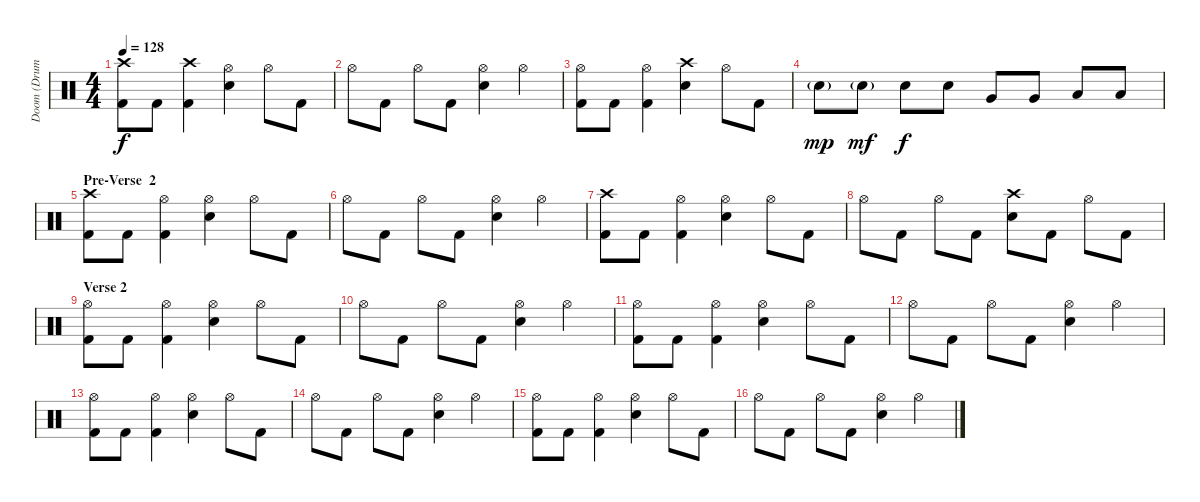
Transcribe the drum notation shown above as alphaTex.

\track ("Doom (Drums)" "Doom (Drum") {instrument percussion}
\staff {score}
\articulation defaults
\ts (4 4)
\tempo 128
\clef neutral
\ks c
("Crash high (hit)" "Kick (hit) 2").8{dy f} "Kick (hit) 2".8 ("Crash high (hit)" "Kick (hit) 2").4 ("Hi-Hat (open)" "Electric Snare (hit)").4 "Hi-Hat (open)".8 "Kick (hit) 2".8 |
"Hi-Hat (open)".8 "Kick (hit) 2".8 "Hi-Hat (open)".8 "Kick (hit) 2".8 ("Hi-Hat (open)" "Electric Snare (hit)").4 "Hi-Hat (open)".4 |
("Hi-Hat (open)" "Kick (hit) 2").8 "Kick (hit) 2".8 ("Hi-Hat (open)" "Kick (hit) 2").4 ("Crash high (hit)" "Electric Snare (hit)").4 "Hi-Hat (open)".8 "Kick (hit) 2".8 |
"Electric Snare (hit)"{g}.8{dy mp} "Electric Snare (hit)"{g}.8{dy mf} "Electric Snare (hit)".8{dy f} "Electric Snare (hit)".8 "Very Low Tom (hit)".8 "Very Low Tom (hit)".8 "Low Floor Tom (hit)".8 "Low Floor Tom (hit)".8 |
\section ("" "Pre-Verse  2")
("Crash high (hit)" "Kick (hit) 2").8 "Kick (hit) 2".8 ("Hi-Hat (open)" "Kick (hit) 2").4 ("Hi-Hat (open)" "Electric Snare (hit)").4 "Hi-Hat (open)".8 "Kick (hit) 2".8 |
"Hi-Hat (open)".8 "Kick (hit) 2".8 "Hi-Hat (open)".8 "Kick (hit) 2".8 ("Hi-Hat (open)" "Electric Snare (hit)").4 "Hi-Hat (open)".4 |
("Crash high (hit)" "Kick (hit) 2").8 "Kick (hit) 2".8 ("Hi-Hat (open)" "Kick (hit) 2").4 ("Hi-Hat (open)" "Electric Snare (hit)").4 "Hi-Hat (open)".8 "Kick (hit) 2".8 |
"Hi-Hat (open)".8 "Kick (hit) 2".8 "Hi-Hat (open)".8 "Kick (hit) 2".8 ("Crash high (hit)" "Electric Snare (hit)").8 "Kick (hit) 2".8 "Hi-Hat (open)".8 "Kick (hit) 2".8 |
\section ("" "Verse 2")
("Hi-Hat (open)" "Kick (hit) 2").8 "Kick (hit) 2".8 ("Hi-Hat (open)" "Kick (hit) 2").4 ("Hi-Hat (open)" "Electric Snare (hit)").4 "Hi-Hat (open)".8 "Kick (hit) 2".8 |
"Hi-Hat (open)".8 "Kick (hit) 2".8 "Hi-Hat (open)".8 "Kick (hit) 2".8 ("Hi-Hat (open)" "Electric Snare (hit)").4 "Hi-Hat (open)".4 |
("Hi-Hat (open)" "Kick (hit) 2").8 "Kick (hit) 2".8 ("Hi-Hat (open)" "Kick (hit) 2").4 ("Hi-Hat (open)" "Electric Snare (hit)").4 "Hi-Hat (open)".8 "Kick (hit) 2".8 |
"Hi-Hat (open)".8 "Kick (hit) 2".8 "Hi-Hat (open)".8 "Kick (hit) 2".8 ("Hi-Hat (open)" "Electric Snare (hit)").4 "Hi-Hat (open)".4 |
("Hi-Hat (open)" "Kick (hit) 2").8 "Kick (hit) 2".8 ("Hi-Hat (open)" "Kick (hit) 2").4 ("Hi-Hat (open)" "Electric Snare (hit)").4 "Hi-Hat (open)".8 "Kick (hit) 2".8 |
"Hi-Hat (open)".8 "Kick (hit) 2".8 "Hi-Hat (open)".8 "Kick (hit) 2".8 ("Hi-Hat (open)" "Electric Snare (hit)").4 "Hi-Hat (open)".4 |
("Hi-Hat (open)" "Kick (hit) 2").8 "Kick (hit) 2".8 ("Hi-Hat (open)" "Kick (hit) 2").4 ("Hi-Hat (open)" "Electric Snare (hit)").4 "Hi-Hat (open)".8 "Kick (hit) 2".8 |
"Hi-Hat (open)".8 "Kick (hit) 2".8 "Hi-Hat (open)".8 "Kick (hit) 2".8 ("Hi-Hat (open)" "Electric Snare (hit)").4 "Hi-Hat (open)".4
